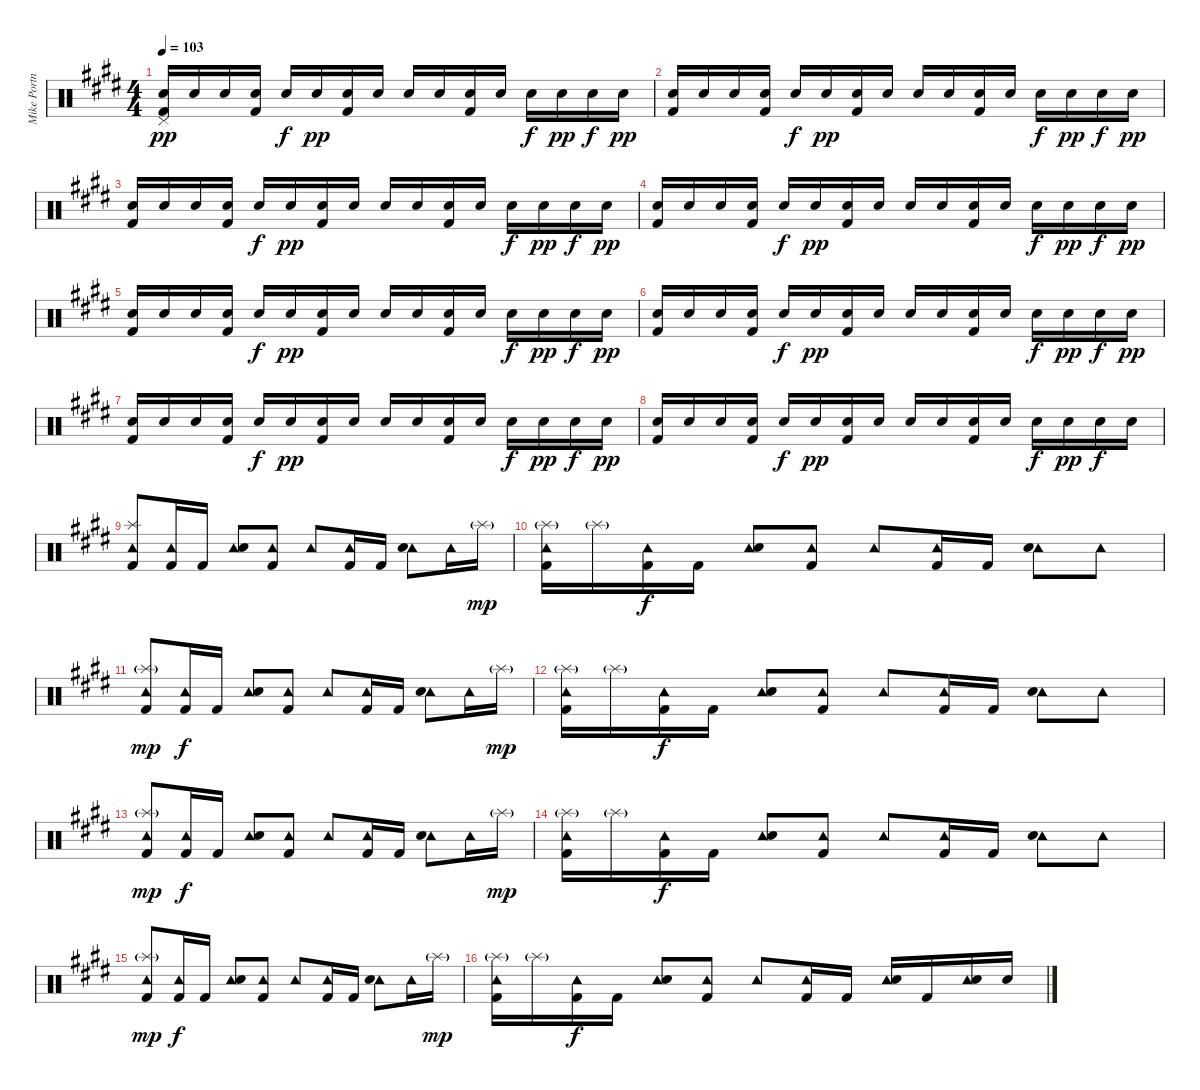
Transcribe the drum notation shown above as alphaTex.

\track ("Mike Portnoy" "Mike Portn") {instrument percussion}
\staff {score}
\articulation defaults
\ts (4 4)
\tempo 103
\clef neutral
\ks e
("Snare (hit) 2" "Pedal Hi-Hat (hit)" "Kick (hit) 2").16{dy pp volume 9} "Snare (hit) 2".16 "Snare (hit) 2".16 ("Snare (hit) 2" "Kick (hit) 2").16 "Snare (hit) 2".16{dy f} "Snare (hit) 2".16{dy pp} ("Snare (hit) 2" "Kick (hit) 2").16 "Snare (hit) 2".16 "Snare (hit) 2".16 "Snare (hit) 2".16 ("Snare (hit) 2" "Kick (hit) 2").16 "Snare (hit) 2".16 "Snare (hit) 2".16{dy f} "Snare (hit) 2".16{dy pp} "Snare (hit) 2".16{dy f} "Snare (hit) 2".16{dy pp} |
("Snare (hit) 2" "Kick (hit) 2").16 "Snare (hit) 2".16 "Snare (hit) 2".16 ("Snare (hit) 2" "Kick (hit) 2").16 "Snare (hit) 2".16{dy f} "Snare (hit) 2".16{dy pp} ("Snare (hit) 2" "Kick (hit) 2").16 "Snare (hit) 2".16 "Snare (hit) 2".16 "Snare (hit) 2".16 ("Snare (hit) 2" "Kick (hit) 2").16 "Snare (hit) 2".16 "Snare (hit) 2".16{dy f} "Snare (hit) 2".16{dy pp} "Snare (hit) 2".16{dy f} "Snare (hit) 2".16{dy pp} |
("Snare (hit) 2" "Kick (hit) 2").16 "Snare (hit) 2".16 "Snare (hit) 2".16 ("Snare (hit) 2" "Kick (hit) 2").16 "Snare (hit) 2".16{dy f} "Snare (hit) 2".16{dy pp} ("Snare (hit) 2" "Kick (hit) 2").16 "Snare (hit) 2".16 "Snare (hit) 2".16 "Snare (hit) 2".16 ("Snare (hit) 2" "Kick (hit) 2").16 "Snare (hit) 2".16 "Snare (hit) 2".16{dy f} "Snare (hit) 2".16{dy pp} "Snare (hit) 2".16{dy f} "Snare (hit) 2".16{dy pp} |
("Snare (hit) 2" "Kick (hit) 2").16 "Snare (hit) 2".16 "Snare (hit) 2".16 ("Snare (hit) 2" "Kick (hit) 2").16 "Snare (hit) 2".16{dy f} "Snare (hit) 2".16{dy pp} ("Snare (hit) 2" "Kick (hit) 2").16 "Snare (hit) 2".16 "Snare (hit) 2".16 "Snare (hit) 2".16 ("Snare (hit) 2" "Kick (hit) 2").16 "Snare (hit) 2".16 "Snare (hit) 2".16{dy f} "Snare (hit) 2".16{dy pp} "Snare (hit) 2".16{dy f} "Snare (hit) 2".16{dy pp} |
("Snare (hit) 2" "Kick (hit) 2").16 "Snare (hit) 2".16 "Snare (hit) 2".16 ("Snare (hit) 2" "Kick (hit) 2").16 "Snare (hit) 2".16{dy f} "Snare (hit) 2".16{dy pp} ("Snare (hit) 2" "Kick (hit) 2").16 "Snare (hit) 2".16 "Snare (hit) 2".16 "Snare (hit) 2".16 ("Snare (hit) 2" "Kick (hit) 2").16 "Snare (hit) 2".16 "Snare (hit) 2".16{dy f} "Snare (hit) 2".16{dy pp} "Snare (hit) 2".16{dy f} "Snare (hit) 2".16{dy pp} |
("Snare (hit) 2" "Kick (hit) 2").16 "Snare (hit) 2".16 "Snare (hit) 2".16 ("Snare (hit) 2" "Kick (hit) 2").16 "Snare (hit) 2".16{dy f} "Snare (hit) 2".16{dy pp} ("Snare (hit) 2" "Kick (hit) 2").16 "Snare (hit) 2".16 "Snare (hit) 2".16 "Snare (hit) 2".16 ("Snare (hit) 2" "Kick (hit) 2").16 "Snare (hit) 2".16 "Snare (hit) 2".16{dy f} "Snare (hit) 2".16{dy pp} "Snare (hit) 2".16{dy f} "Snare (hit) 2".16{dy pp} |
("Snare (hit) 2" "Kick (hit) 2").16 "Snare (hit) 2".16 "Snare (hit) 2".16 ("Snare (hit) 2" "Kick (hit) 2").16 "Snare (hit) 2".16{dy f} "Snare (hit) 2".16{dy pp} ("Snare (hit) 2" "Kick (hit) 2").16 "Snare (hit) 2".16 "Snare (hit) 2".16 "Snare (hit) 2".16 ("Snare (hit) 2" "Kick (hit) 2").16 "Snare (hit) 2".16 "Snare (hit) 2".16{dy f} "Snare (hit) 2".16{dy pp} "Snare (hit) 2".16{dy f} "Snare (hit) 2".16{dy pp} |
("Snare (hit) 2" "Kick (hit) 2").16 "Snare (hit) 2".16 "Snare (hit) 2".16 ("Snare (hit) 2" "Kick (hit) 2").16 "Snare (hit) 2".16{dy f} "Snare (hit) 2".16{dy pp} ("Snare (hit) 2" "Kick (hit) 2").16 "Snare (hit) 2".16 "Snare (hit) 2".16 "Snare (hit) 2".16 ("Snare (hit) 2" "Kick (hit) 2").16 "Snare (hit) 2".16 "Snare (hit) 2".16{dy f} "Snare (hit) 2".16{dy pp} "Snare (hit) 2".16{dy f} "Snare (hit) 2".16 |
("Splash (hit)" "Tambourine (hit)" "Kick (hit) 2").8 ("Tambourine (hit)" "Kick (hit) 2").16 "Kick (hit) 2".16 ("Tambourine (hit)" "Snare (hit) 2").8 ("Tambourine (hit)" "Kick (hit) 2").8 "Tambourine (hit)".8 ("Tambourine (hit)" "Kick (hit) 2").16 "Kick (hit) 2".16 ("Tambourine (hit)" "Snare (hit) 2").8 "Tambourine (hit)".16 "Splash (hit)"{g}.16{dy mp} |
("Splash (hit)"{g} "Tambourine (hit)" "Kick (hit) 2").16 "Splash (hit)"{g}.16 ("Tambourine (hit)" "Kick (hit) 2").16{dy f} "Kick (hit) 2".16 ("Tambourine (hit)" "Snare (hit) 2").8 ("Tambourine (hit)" "Kick (hit) 2").8 "Tambourine (hit)".8 ("Tambourine (hit)" "Kick (hit) 2").16 "Kick (hit) 2".16 ("Tambourine (hit)" "Snare (hit) 2").8 "Tambourine (hit)".8 |
("Splash (hit)"{g} "Tambourine (hit)" "Kick (hit) 2").8{dy mp} ("Tambourine (hit)" "Kick (hit) 2").16{dy f} "Kick (hit) 2".16 ("Tambourine (hit)" "Snare (hit) 2").8 ("Tambourine (hit)" "Kick (hit) 2").8 "Tambourine (hit)".8 ("Tambourine (hit)" "Kick (hit) 2").16 "Kick (hit) 2".16 ("Tambourine (hit)" "Snare (hit) 2").8 "Tambourine (hit)".16 "Splash (hit)"{g}.16{dy mp} |
("Splash (hit)"{g} "Tambourine (hit)" "Kick (hit) 2").16 "Splash (hit)"{g}.16 ("Tambourine (hit)" "Kick (hit) 2").16{dy f} "Kick (hit) 2".16 ("Tambourine (hit)" "Snare (hit) 2").8 ("Tambourine (hit)" "Kick (hit) 2").8 "Tambourine (hit)".8 ("Tambourine (hit)" "Kick (hit) 2").16 "Kick (hit) 2".16 ("Tambourine (hit)" "Snare (hit) 2").8 "Tambourine (hit)".8 |
("Splash (hit)"{g} "Tambourine (hit)" "Kick (hit) 2").8{dy mp} ("Tambourine (hit)" "Kick (hit) 2").16{dy f} "Kick (hit) 2".16 ("Tambourine (hit)" "Snare (hit) 2").8 ("Tambourine (hit)" "Kick (hit) 2").8 "Tambourine (hit)".8 ("Tambourine (hit)" "Kick (hit) 2").16 "Kick (hit) 2".16 ("Tambourine (hit)" "Snare (hit) 2").8 "Tambourine (hit)".16 "Splash (hit)"{g}.16{dy mp} |
("Splash (hit)"{g} "Tambourine (hit)" "Kick (hit) 2").16 "Splash (hit)"{g}.16 ("Tambourine (hit)" "Kick (hit) 2").16{dy f} "Kick (hit) 2".16 ("Tambourine (hit)" "Snare (hit) 2").8 ("Tambourine (hit)" "Kick (hit) 2").8 "Tambourine (hit)".8 ("Tambourine (hit)" "Kick (hit) 2").16 "Kick (hit) 2".16 ("Tambourine (hit)" "Snare (hit) 2").8 "Tambourine (hit)".8 |
("Splash (hit)"{g} "Tambourine (hit)" "Kick (hit) 2").8{dy mp} ("Tambourine (hit)" "Kick (hit) 2").16{dy f} "Kick (hit) 2".16 ("Tambourine (hit)" "Snare (hit) 2").8 ("Tambourine (hit)" "Kick (hit) 2").8 "Tambourine (hit)".8 ("Tambourine (hit)" "Kick (hit) 2").16 "Kick (hit) 2".16 ("Tambourine (hit)" "Snare (hit) 2").8 "Tambourine (hit)".16 "Splash (hit)"{g}.16{dy mp} |
("Splash (hit)"{g} "Tambourine (hit)" "Kick (hit) 2").16 "Splash (hit)"{g}.16 ("Tambourine (hit)" "Kick (hit) 2").16{dy f} "Kick (hit) 2".16 ("Tambourine (hit)" "Snare (hit) 2").8 ("Tambourine (hit)" "Kick (hit) 2").8 "Tambourine (hit)".8 ("Tambourine (hit)" "Kick (hit) 2").16 "Kick (hit) 2".16 ("Tambourine (hit)" "Snare (hit) 2").16 "Kick (hit) 2".16 ("Tambourine (hit)" "Snare (hit) 2").16 "Snare (hit) 2".16
